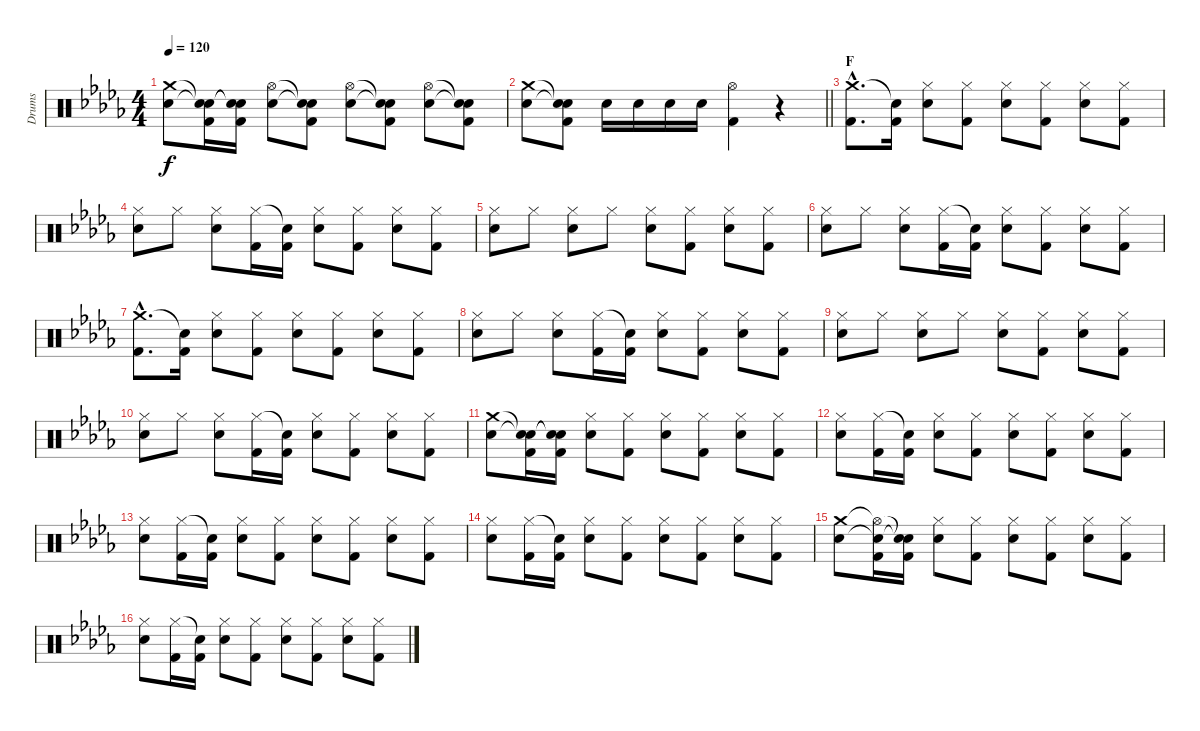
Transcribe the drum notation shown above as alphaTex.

\track ("Drums" "Drums") {instrument percussion}
\staff {score}
\articulation defaults
\ts (4 4)
\tempo 120
\clef neutral
\ks db
("Crash medium (hit)" "Electric Snare (hit)").8{dy f} ("Snare (hit)"{t} "Snare (hit)"{t} "Kick (hit) 2").16 ("Snare (hit)"{t} "Snare (hit)"{t} "Kick (hit) 2").16 ("Hi-Hat (open)" "Electric Snare (hit)").8 ("Snare (hit)"{t} "Snare (hit)"{t} "Kick (hit) 2").8 ("Hi-Hat (open)" "Electric Snare (hit)").8 ("Snare (hit)"{t} "Snare (hit)"{t} "Kick (hit) 2").8 ("Hi-Hat (open)" "Electric Snare (hit)").8 ("Snare (hit)"{t} "Snare (hit)"{t} "Kick (hit) 2").8 |
\barLineRight lightlight
("Crash medium (hit)" "Electric Snare (hit)").8 ("Snare (hit)"{t} "Snare (hit)"{t} "Kick (hit) 2").8 "Electric Snare (hit)".16 "Electric Snare (hit)".16 "Electric Snare (hit)".16 "Electric Snare (hit)".16 ("Hi-Hat (open)" "Kick (hit) 2").4 r.4 |
\section ("" "F")
("Crash medium (hit)"{hac} "Kick (hit) 2"{hac}).8{d} ("Snare (hit)"{t} "Kick (hit) 2").16 ("Hi-Hat (closed)" "Electric Snare (hit)").8 ("Hi-Hat (closed)" "Kick (hit) 2").8 ("Hi-Hat (closed)" "Electric Snare (hit)").8 ("Hi-Hat (closed)" "Kick (hit) 2").8 ("Hi-Hat (closed)" "Electric Snare (hit)").8 ("Hi-Hat (closed)" "Kick (hit) 2").8 |
("Hi-Hat (closed)" "Electric Snare (hit)").8 "Hi-Hat (closed)".8 ("Hi-Hat (closed)" "Electric Snare (hit)").8 ("Hi-Hat (closed)" "Kick (hit) 2").16 ("Snare (hit)"{t} "Kick (hit) 2").16 ("Hi-Hat (closed)" "Electric Snare (hit)").8 ("Hi-Hat (closed)" "Kick (hit) 2").8 ("Hi-Hat (closed)" "Electric Snare (hit)").8 ("Hi-Hat (closed)" "Kick (hit) 2").8 |
("Hi-Hat (closed)" "Electric Snare (hit)").8 "Hi-Hat (closed)".8 ("Hi-Hat (closed)" "Electric Snare (hit)").8 "Hi-Hat (closed)".8 ("Hi-Hat (closed)" "Electric Snare (hit)").8 ("Hi-Hat (closed)" "Kick (hit) 2").8 ("Hi-Hat (closed)" "Electric Snare (hit)").8 ("Hi-Hat (closed)" "Kick (hit) 2").8 |
("Hi-Hat (closed)" "Electric Snare (hit)").8 "Hi-Hat (closed)".8 ("Hi-Hat (closed)" "Electric Snare (hit)").8 ("Hi-Hat (closed)" "Kick (hit) 2").16 ("Snare (hit)"{t} "Kick (hit) 2").16 ("Hi-Hat (closed)" "Electric Snare (hit)").8 ("Hi-Hat (closed)" "Kick (hit) 2").8 ("Hi-Hat (closed)" "Electric Snare (hit)").8 ("Hi-Hat (closed)" "Kick (hit) 2").8 |
("Crash medium (hit)"{hac} "Kick (hit) 2"{hac}).8{d} ("Snare (hit)"{t} "Kick (hit) 2").16 ("Hi-Hat (closed)" "Electric Snare (hit)").8 ("Hi-Hat (closed)" "Kick (hit) 2").8 ("Hi-Hat (closed)" "Electric Snare (hit)").8 ("Hi-Hat (closed)" "Kick (hit) 2").8 ("Hi-Hat (closed)" "Electric Snare (hit)").8 ("Hi-Hat (closed)" "Kick (hit) 2").8 |
("Hi-Hat (closed)" "Electric Snare (hit)").8 "Hi-Hat (closed)".8 ("Hi-Hat (closed)" "Electric Snare (hit)").8 ("Hi-Hat (closed)" "Kick (hit) 2").16 ("Snare (hit)"{t} "Kick (hit) 2").16 ("Hi-Hat (closed)" "Electric Snare (hit)").8 ("Hi-Hat (closed)" "Kick (hit) 2").8 ("Hi-Hat (closed)" "Electric Snare (hit)").8 ("Hi-Hat (closed)" "Kick (hit) 2").8 |
("Hi-Hat (closed)" "Electric Snare (hit)").8 "Hi-Hat (closed)".8 ("Hi-Hat (closed)" "Electric Snare (hit)").8 "Hi-Hat (closed)".8 ("Hi-Hat (closed)" "Electric Snare (hit)").8 ("Hi-Hat (closed)" "Kick (hit) 2").8 ("Hi-Hat (closed)" "Electric Snare (hit)").8 ("Hi-Hat (closed)" "Kick (hit) 2").8 |
("Hi-Hat (closed)" "Electric Snare (hit)").8 "Hi-Hat (closed)".8 ("Hi-Hat (closed)" "Electric Snare (hit)").8 ("Hi-Hat (closed)" "Kick (hit) 2").16 ("Snare (hit)"{t} "Kick (hit) 2").16 ("Hi-Hat (closed)" "Electric Snare (hit)").8 ("Hi-Hat (closed)" "Kick (hit) 2").8 ("Hi-Hat (closed)" "Electric Snare (hit)").8 ("Hi-Hat (closed)" "Kick (hit) 2").8 |
("Crash medium (hit)" "Electric Snare (hit)").8 ("Snare (hit)"{t} "Snare (hit)"{t} "Kick (hit) 2").16 ("Snare (hit)"{t} "Snare (hit)"{t} "Kick (hit) 2").16 ("Hi-Hat (closed)" "Electric Snare (hit)").8 ("Hi-Hat (closed)" "Kick (hit) 2").8 ("Hi-Hat (closed)" "Electric Snare (hit)").8 ("Hi-Hat (closed)" "Kick (hit) 2").8 ("Hi-Hat (closed)" "Electric Snare (hit)").8 ("Hi-Hat (closed)" "Kick (hit) 2").8 |
("Hi-Hat (closed)" "Electric Snare (hit)").8 ("Hi-Hat (closed)" "Kick (hit) 2").16 ("Snare (hit)"{t} "Kick (hit) 2").16 ("Hi-Hat (closed)" "Electric Snare (hit)").8 ("Hi-Hat (closed)" "Kick (hit) 2").8 ("Hi-Hat (closed)" "Electric Snare (hit)").8 ("Hi-Hat (closed)" "Kick (hit) 2").8 ("Hi-Hat (closed)" "Electric Snare (hit)").8 ("Hi-Hat (closed)" "Kick (hit) 2").8 |
("Hi-Hat (closed)" "Electric Snare (hit)").8 ("Hi-Hat (closed)" "Kick (hit) 2").16 ("Snare (hit)"{t} "Kick (hit) 2").16 ("Hi-Hat (closed)" "Electric Snare (hit)").8 ("Hi-Hat (closed)" "Kick (hit) 2").8 ("Hi-Hat (closed)" "Electric Snare (hit)").8 ("Hi-Hat (closed)" "Kick (hit) 2").8 ("Hi-Hat (closed)" "Electric Snare (hit)").8 ("Hi-Hat (closed)" "Kick (hit) 2").8 |
("Hi-Hat (closed)" "Electric Snare (hit)").8 ("Hi-Hat (closed)" "Kick (hit) 2").16 ("Snare (hit)"{t} "Kick (hit) 2").16 ("Hi-Hat (closed)" "Electric Snare (hit)").8 ("Hi-Hat (closed)" "Kick (hit) 2").8 ("Hi-Hat (closed)" "Electric Snare (hit)").8 ("Hi-Hat (closed)" "Kick (hit) 2").8 ("Hi-Hat (closed)" "Electric Snare (hit)").8 ("Hi-Hat (closed)" "Kick (hit) 2").8 |
("Crash medium (hit)" "Electric Snare (hit)").8 ("Hi-Hat (open)"{t} "Snare (hit)"{t} "Kick (hit) 2").16 ("Snare (hit)"{t} "Snare (hit)"{t} "Kick (hit) 2").16 ("Hi-Hat (closed)" "Electric Snare (hit)").8 ("Hi-Hat (closed)" "Kick (hit) 2").8 ("Hi-Hat (closed)" "Electric Snare (hit)").8 ("Hi-Hat (closed)" "Kick (hit) 2").8 ("Hi-Hat (closed)" "Electric Snare (hit)").8 ("Hi-Hat (closed)" "Kick (hit) 2").8 |
("Hi-Hat (closed)" "Electric Snare (hit)").8 ("Hi-Hat (closed)" "Kick (hit) 2").16 ("Snare (hit)"{t} "Kick (hit) 2").16 ("Hi-Hat (closed)" "Electric Snare (hit)").8 ("Hi-Hat (closed)" "Kick (hit) 2").8 ("Hi-Hat (closed)" "Electric Snare (hit)").8 ("Hi-Hat (closed)" "Kick (hit) 2").8 ("Hi-Hat (closed)" "Electric Snare (hit)").8 ("Hi-Hat (closed)" "Kick (hit) 2").8
